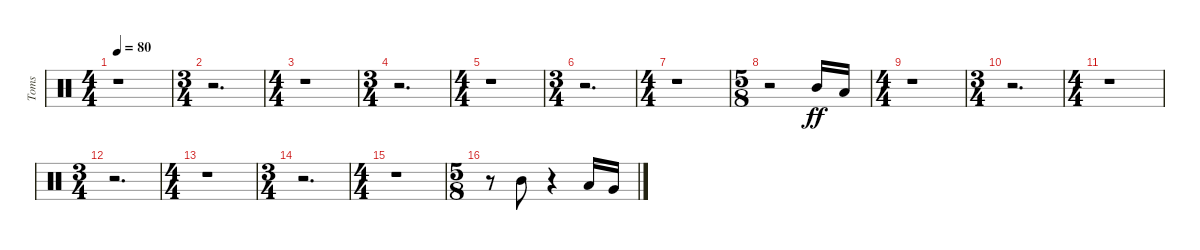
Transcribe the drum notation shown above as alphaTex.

\track ("Toms" "Toms") {instrument percussion}
\staff {score}
\articulation defaults
\ts (4 4)
\tempo 80
\clef neutral
\ks c
r.1{dy ff} |
\ts (3 4)
r.2{d} |
\ts (4 4)
r.1 |
\ts (3 4)
r.2{d} |
\ts (4 4)
r.1 |
\ts (3 4)
r.2{d} |
\ts (4 4)
r.1 |
\ts (5 8)
r.2 "Mid Tom (hit)".16 "Low Tom (hit)".16 |
\ts (4 4)
r.1 |
\ts (3 4)
r.2{d} |
\ts (4 4)
r.1 |
\ts (3 4)
r.2{d} |
\ts (4 4)
r.1 |
\ts (3 4)
r.2{d} |
\ts (4 4)
r.1 |
\ts (5 8)
r.8 "Mid Tom (hit)".8 r.4 "Low Tom (hit)".16 "Very Low Tom (hit)".16
